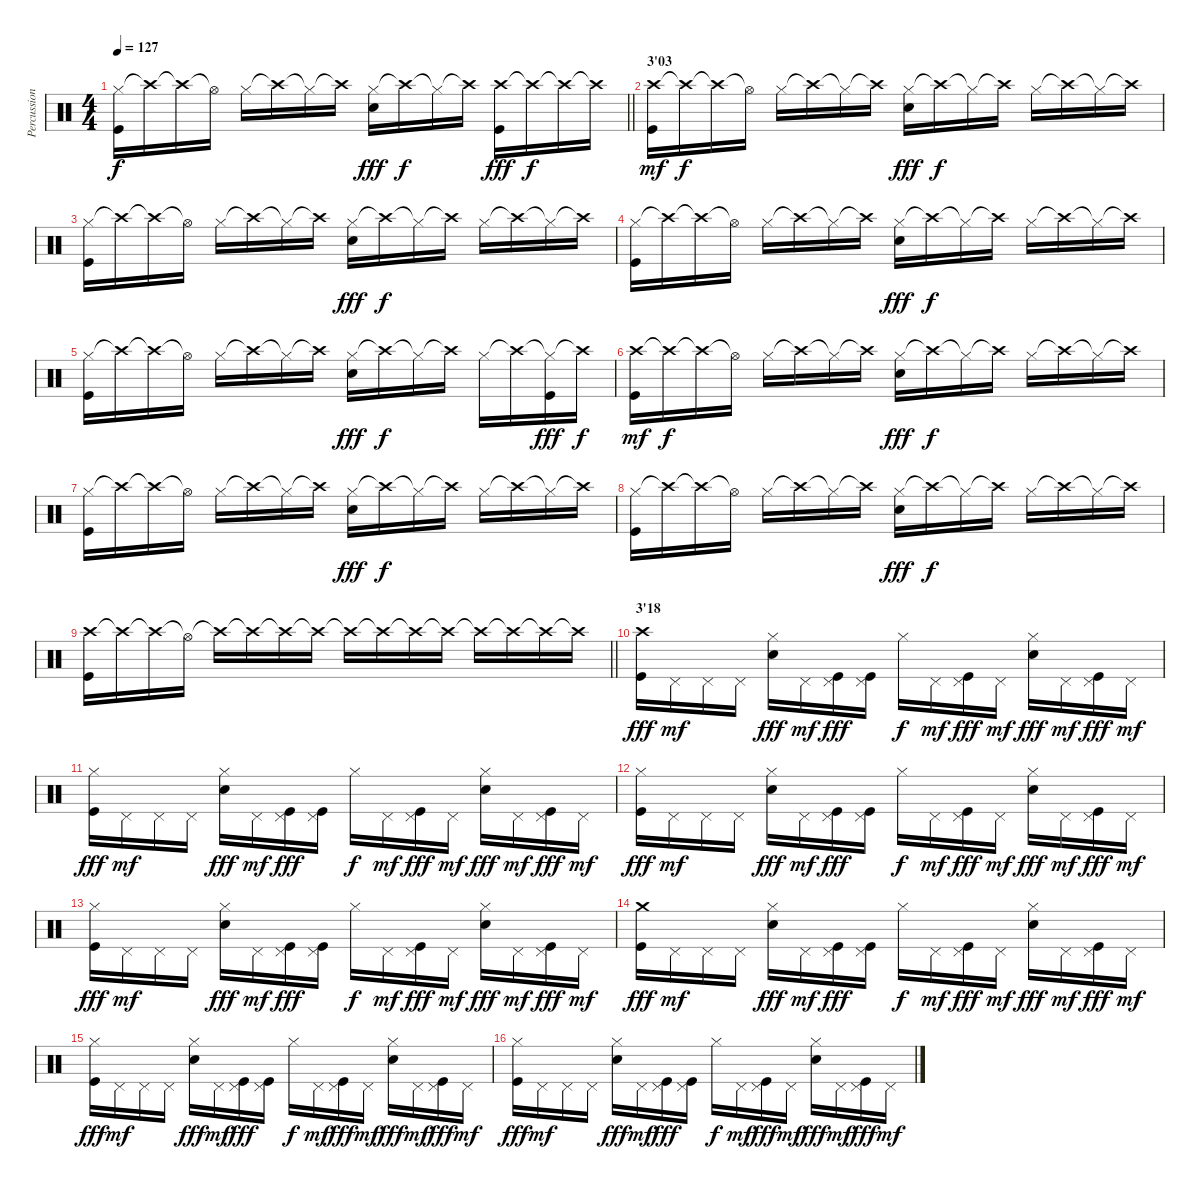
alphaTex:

\track ("Percussions" "Percussion") {instrument percussion}
\staff {score}
\articulation defaults
\ts (4 4)
\tempo 127
\clef neutral
\barLineRight lightlight
\ks c
("Hi-Hat (closed)" "Kick (hit)").16{dy f} "Crash high (hit)"{t}.16 "Crash high (hit)"{t}.16 "Hi-Hat (open)"{t}.16 "Hi-Hat (closed)".16 "Crash high (hit)"{t}.16 "Hi-Hat (closed)"{t}.16 "Crash high (hit)"{t}.16 ("Hi-Hat (closed)" "Electric Snare (hit)").16{dy fff} "Crash high (hit)"{t}.16{dy f} "Hi-Hat (closed)"{t}.16 "Crash high (hit)"{t}.16 ("Crash high (hit)" "Kick (hit)").16{dy fff} "Crash high (hit)"{t}.16{dy f} "Crash high (hit)"{t}.16 "Crash high (hit)"{t}.16 |
\section ("" "3'03")
("Crash high (hit)" "Kick (hit)").16{dy mf} "Crash high (hit)"{t}.16{dy f} "Crash high (hit)"{t}.16 "Hi-Hat (open)"{t}.16 "Hi-Hat (closed)".16 "Crash high (hit)"{t}.16 "Hi-Hat (closed)"{t}.16 "Crash high (hit)"{t}.16 ("Hi-Hat (closed)" "Electric Snare (hit)").16{dy fff} "Crash high (hit)"{t}.16{dy f} "Hi-Hat (closed)"{t}.16 "Crash high (hit)"{t}.16 "Hi-Hat (closed)".16 "Crash high (hit)"{t}.16 "Hi-Hat (closed)"{t}.16 "Crash high (hit)"{t}.16 |
("Hi-Hat (closed)" "Kick (hit)").16 "Crash high (hit)"{t}.16 "Crash high (hit)"{t}.16 "Hi-Hat (open)"{t}.16 "Hi-Hat (closed)".16 "Crash high (hit)"{t}.16 "Hi-Hat (closed)"{t}.16 "Crash high (hit)"{t}.16 ("Hi-Hat (closed)" "Electric Snare (hit)").16{dy fff} "Crash high (hit)"{t}.16{dy f} "Hi-Hat (closed)"{t}.16 "Crash high (hit)"{t}.16 "Hi-Hat (closed)".16 "Crash high (hit)"{t}.16 "Hi-Hat (closed)"{t}.16 "Crash high (hit)"{t}.16 |
("Hi-Hat (closed)" "Kick (hit)").16 "Crash high (hit)"{t}.16 "Crash high (hit)"{t}.16 "Hi-Hat (open)"{t}.16 "Hi-Hat (closed)".16 "Crash high (hit)"{t}.16 "Hi-Hat (closed)"{t}.16 "Crash high (hit)"{t}.16 ("Hi-Hat (closed)" "Electric Snare (hit)").16{dy fff} "Crash high (hit)"{t}.16{dy f} "Hi-Hat (closed)"{t}.16 "Crash high (hit)"{t}.16 "Hi-Hat (closed)".16 "Crash high (hit)"{t}.16 "Hi-Hat (closed)"{t}.16 "Crash high (hit)"{t}.16 |
("Hi-Hat (closed)" "Kick (hit)").16 "Crash high (hit)"{t}.16 "Crash high (hit)"{t}.16 "Hi-Hat (open)"{t}.16 "Hi-Hat (closed)".16 "Crash high (hit)"{t}.16 "Hi-Hat (closed)"{t}.16 "Crash high (hit)"{t}.16 ("Hi-Hat (closed)" "Electric Snare (hit)").16{dy fff} "Crash high (hit)"{t}.16{dy f} "Hi-Hat (closed)"{t}.16 "Crash high (hit)"{t}.16 "Hi-Hat (closed)".16 "Crash high (hit)"{t}.16 ("Hi-Hat (closed)"{t} "Kick (hit)").16{dy fff} "Crash high (hit)"{t}.16{dy f} |
("Crash high (hit)" "Kick (hit)").16{dy mf} "Crash high (hit)"{t}.16{dy f} "Crash high (hit)"{t}.16 "Hi-Hat (open)"{t}.16 "Hi-Hat (closed)".16 "Crash high (hit)"{t}.16 "Hi-Hat (closed)"{t}.16 "Crash high (hit)"{t}.16 ("Hi-Hat (closed)" "Electric Snare (hit)").16{dy fff} "Crash high (hit)"{t}.16{dy f} "Hi-Hat (closed)"{t}.16 "Crash high (hit)"{t}.16 "Hi-Hat (closed)".16 "Crash high (hit)"{t}.16 "Hi-Hat (closed)"{t}.16 "Crash high (hit)"{t}.16 |
("Hi-Hat (closed)" "Kick (hit)").16 "Crash high (hit)"{t}.16 "Crash high (hit)"{t}.16 "Hi-Hat (open)"{t}.16 "Hi-Hat (closed)".16 "Crash high (hit)"{t}.16 "Hi-Hat (closed)"{t}.16 "Crash high (hit)"{t}.16 ("Hi-Hat (closed)" "Electric Snare (hit)").16{dy fff} "Crash high (hit)"{t}.16{dy f} "Hi-Hat (closed)"{t}.16 "Crash high (hit)"{t}.16 "Hi-Hat (closed)".16 "Crash high (hit)"{t}.16 "Hi-Hat (closed)"{t}.16 "Crash high (hit)"{t}.16 |
("Hi-Hat (closed)" "Kick (hit)").16 "Crash high (hit)"{t}.16 "Crash high (hit)"{t}.16 "Hi-Hat (open)"{t}.16 "Hi-Hat (closed)".16 "Crash high (hit)"{t}.16 "Hi-Hat (closed)"{t}.16 "Crash high (hit)"{t}.16 ("Hi-Hat (closed)" "Electric Snare (hit)").16{dy fff} "Crash high (hit)"{t}.16{dy f} "Hi-Hat (closed)"{t}.16 "Crash high (hit)"{t}.16 "Hi-Hat (closed)".16 "Crash high (hit)"{t}.16 "Hi-Hat (closed)"{t}.16 "Crash high (hit)"{t}.16 |
\barLineRight lightlight
("Crash high (hit)" "Kick (hit)").16 "Crash high (hit)"{t}.16 "Crash high (hit)"{t}.16 "Hi-Hat (open)"{t}.16 "Crash high (hit)"{t}.16 "Crash high (hit)"{t}.16 "Crash high (hit)"{t}.16 "Crash high (hit)"{t}.16 "Crash high (hit)"{t}.16 "Crash high (hit)"{t}.16 "Crash high (hit)"{t}.16 "Crash high (hit)"{t}.16 "Crash high (hit)"{t}.16 "Crash high (hit)"{t}.16 "Crash high (hit)"{t}.16 "Crash high (hit)"{t}.16 |
\section ("" "3'18")
("Crash high (hit)" "Kick (hit)").16{dy fff} "Pedal Hi-Hat (hit)".16{dy mf} "Pedal Hi-Hat (hit)".16 "Pedal Hi-Hat (hit)".16 ("Hi-Hat (closed)" "Electric Snare (hit)").16{dy fff} "Pedal Hi-Hat (hit)".16{dy mf} ("Pedal Hi-Hat (hit)" "Kick (hit)").16{dy fff} ("Pedal Hi-Hat (hit)" "Kick (hit)").16 "Hi-Hat (closed)".16{dy f} "Pedal Hi-Hat (hit)".16{dy mf} ("Pedal Hi-Hat (hit)" "Kick (hit)").16{dy fff} "Pedal Hi-Hat (hit)".16{dy mf} ("Hi-Hat (closed)" "Electric Snare (hit)").16{dy fff} "Pedal Hi-Hat (hit)".16{dy mf} ("Pedal Hi-Hat (hit)" "Kick (hit)").16{dy fff} "Pedal Hi-Hat (hit)".16{dy mf} |
("Hi-Hat (closed)" "Kick (hit)").16{dy fff} "Pedal Hi-Hat (hit)".16{dy mf} "Pedal Hi-Hat (hit)".16 "Pedal Hi-Hat (hit)".16 ("Hi-Hat (closed)" "Electric Snare (hit)").16{dy fff} "Pedal Hi-Hat (hit)".16{dy mf} ("Pedal Hi-Hat (hit)" "Kick (hit)").16{dy fff} ("Pedal Hi-Hat (hit)" "Kick (hit)").16 "Hi-Hat (closed)".16{dy f} "Pedal Hi-Hat (hit)".16{dy mf} ("Pedal Hi-Hat (hit)" "Kick (hit)").16{dy fff} "Pedal Hi-Hat (hit)".16{dy mf} ("Hi-Hat (closed)" "Electric Snare (hit)").16{dy fff} "Pedal Hi-Hat (hit)".16{dy mf} ("Pedal Hi-Hat (hit)" "Kick (hit)").16{dy fff} "Pedal Hi-Hat (hit)".16{dy mf} |
("Hi-Hat (closed)" "Kick (hit)").16{dy fff} "Pedal Hi-Hat (hit)".16{dy mf} "Pedal Hi-Hat (hit)".16 "Pedal Hi-Hat (hit)".16 ("Hi-Hat (closed)" "Electric Snare (hit)").16{dy fff} "Pedal Hi-Hat (hit)".16{dy mf} ("Pedal Hi-Hat (hit)" "Kick (hit)").16{dy fff} ("Pedal Hi-Hat (hit)" "Kick (hit)").16 "Hi-Hat (closed)".16{dy f} "Pedal Hi-Hat (hit)".16{dy mf} ("Pedal Hi-Hat (hit)" "Kick (hit)").16{dy fff} "Pedal Hi-Hat (hit)".16{dy mf} ("Hi-Hat (closed)" "Electric Snare (hit)").16{dy fff} "Pedal Hi-Hat (hit)".16{dy mf} ("Pedal Hi-Hat (hit)" "Kick (hit)").16{dy fff} "Pedal Hi-Hat (hit)".16{dy mf} |
("Hi-Hat (closed)" "Kick (hit)").16{dy fff} "Pedal Hi-Hat (hit)".16{dy mf} "Pedal Hi-Hat (hit)".16 "Pedal Hi-Hat (hit)".16 ("Hi-Hat (closed)" "Electric Snare (hit)").16{dy fff} "Pedal Hi-Hat (hit)".16{dy mf} ("Pedal Hi-Hat (hit)" "Kick (hit)").16{dy fff} ("Pedal Hi-Hat (hit)" "Kick (hit)").16 "Hi-Hat (closed)".16{dy f} "Pedal Hi-Hat (hit)".16{dy mf} ("Pedal Hi-Hat (hit)" "Kick (hit)").16{dy fff} "Pedal Hi-Hat (hit)".16{dy mf} ("Hi-Hat (closed)" "Electric Snare (hit)").16{dy fff} "Pedal Hi-Hat (hit)".16{dy mf} ("Pedal Hi-Hat (hit)" "Kick (hit)").16{dy fff} "Pedal Hi-Hat (hit)".16{dy mf} |
("Crash medium (hit)" "Kick (hit)").16{dy fff} "Pedal Hi-Hat (hit)".16{dy mf} "Pedal Hi-Hat (hit)".16 "Pedal Hi-Hat (hit)".16 ("Hi-Hat (closed)" "Electric Snare (hit)").16{dy fff} "Pedal Hi-Hat (hit)".16{dy mf} ("Pedal Hi-Hat (hit)" "Kick (hit)").16{dy fff} ("Pedal Hi-Hat (hit)" "Kick (hit)").16 "Hi-Hat (closed)".16{dy f} "Pedal Hi-Hat (hit)".16{dy mf} ("Pedal Hi-Hat (hit)" "Kick (hit)").16{dy fff} "Pedal Hi-Hat (hit)".16{dy mf} ("Hi-Hat (closed)" "Electric Snare (hit)").16{dy fff} "Pedal Hi-Hat (hit)".16{dy mf} ("Pedal Hi-Hat (hit)" "Kick (hit)").16{dy fff} "Pedal Hi-Hat (hit)".16{dy mf} |
("Hi-Hat (closed)" "Kick (hit)").16{dy fff} "Pedal Hi-Hat (hit)".16{dy mf} "Pedal Hi-Hat (hit)".16 "Pedal Hi-Hat (hit)".16 ("Hi-Hat (closed)" "Electric Snare (hit)").16{dy fff} "Pedal Hi-Hat (hit)".16{dy mf} ("Pedal Hi-Hat (hit)" "Kick (hit)").16{dy fff} ("Pedal Hi-Hat (hit)" "Kick (hit)").16 "Hi-Hat (closed)".16{dy f} "Pedal Hi-Hat (hit)".16{dy mf} ("Pedal Hi-Hat (hit)" "Kick (hit)").16{dy fff} "Pedal Hi-Hat (hit)".16{dy mf} ("Hi-Hat (closed)" "Electric Snare (hit)").16{dy fff} "Pedal Hi-Hat (hit)".16{dy mf} ("Pedal Hi-Hat (hit)" "Kick (hit)").16{dy fff} "Pedal Hi-Hat (hit)".16{dy mf} |
("Hi-Hat (closed)" "Kick (hit)").16{dy fff} "Pedal Hi-Hat (hit)".16{dy mf} "Pedal Hi-Hat (hit)".16 "Pedal Hi-Hat (hit)".16 ("Hi-Hat (closed)" "Electric Snare (hit)").16{dy fff} "Pedal Hi-Hat (hit)".16{dy mf} ("Pedal Hi-Hat (hit)" "Kick (hit)").16{dy fff} ("Pedal Hi-Hat (hit)" "Kick (hit)").16 "Hi-Hat (closed)".16{dy f} "Pedal Hi-Hat (hit)".16{dy mf} ("Pedal Hi-Hat (hit)" "Kick (hit)").16{dy fff} "Pedal Hi-Hat (hit)".16{dy mf} ("Hi-Hat (closed)" "Electric Snare (hit)").16{dy fff} "Pedal Hi-Hat (hit)".16{dy mf} ("Pedal Hi-Hat (hit)" "Kick (hit)").16{dy fff} "Pedal Hi-Hat (hit)".16{dy mf}
